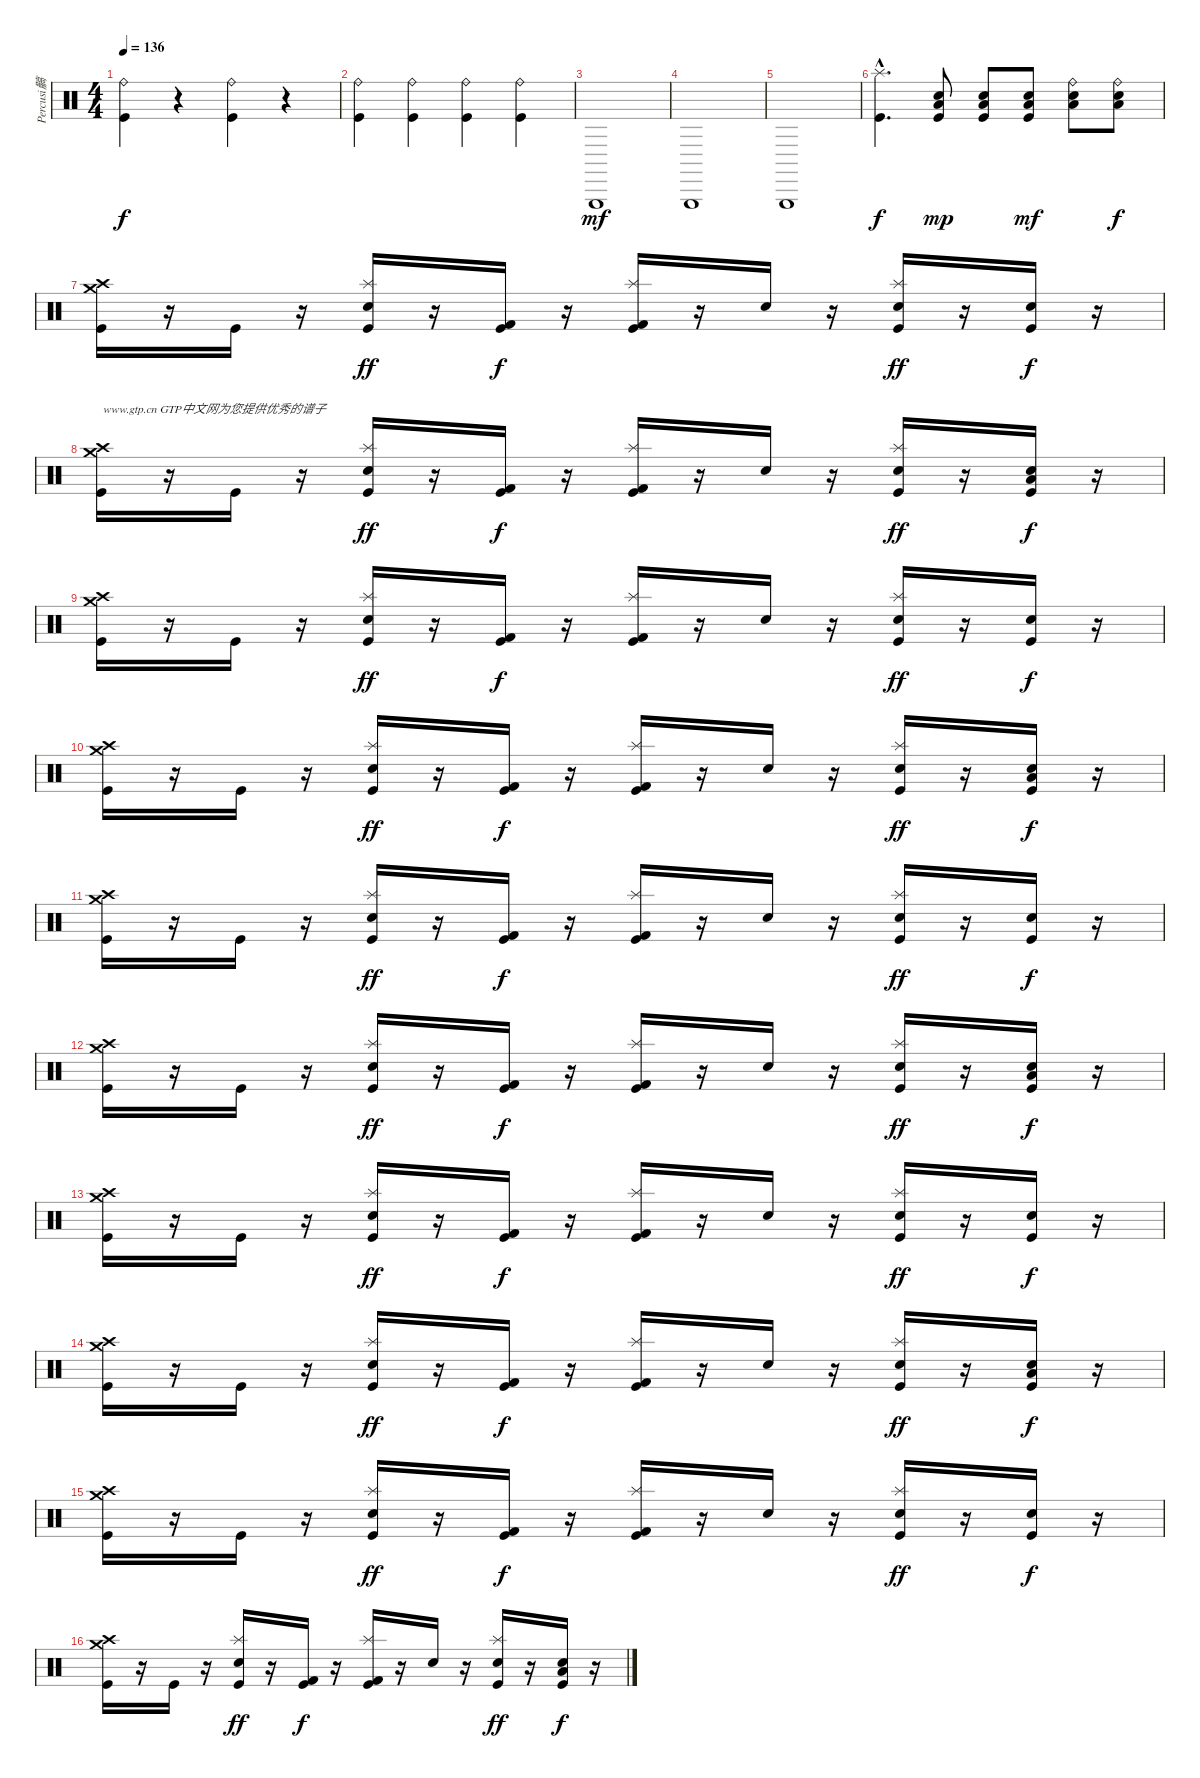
\track ("Percusi髇" "Percusi髇") {instrument percussion}
\staff {score}
\articulation defaults
\ts (4 4)
\tempo 136
\clef neutral
\ks c
("Kick (hit)" "Ride (bell)").4{dy f} r.4 ("Kick (hit)" "Ride (bell)").4 r.4 |
("Kick (hit)" "Ride (bell)").4 ("Kick (hit)" "Ride (bell)").4 ("Kick (hit)" "Ride (bell)").4 ("Kick (hit)" "Ride (bell)").4 |
"Triangle (hit)".1{dy mf} |
"Triangle (hit)".1 |
"Triangle (hit)".1 |
("Splash (hit)"{hac} "Kick (hit)"{hac}).4{d dy f} ("Low Floor Tom (hit)" "Electric Snare (hit)" "Kick (hit)").8{dy mp} ("Low Floor Tom (hit)" "Electric Snare (hit)" "Kick (hit)").8 ("Low Floor Tom (hit)" "Electric Snare (hit)" "Kick (hit)").8{dy mf} ("Low Floor Tom (hit)" "Electric Snare (hit)" "Ride (bell)").8 ("Low Floor Tom (hit)" "Electric Snare (hit)" "Ride (bell)").8{dy f} |
("Crash medium (hit)" "Crash high (hit)" "Kick (hit)").16 r.16 "Kick (hit)".16 r.16 ("Splash (hit)" "Electric Snare (hit)" "Kick (hit)").16{dy ff} r.16 ("Kick (hit) 2" "Kick (hit)").16{dy f} r.16 ("Splash (hit)" "Kick (hit) 2" "Kick (hit)").16 r.16 "Electric Snare (hit)".16 r.16 ("Splash (hit)" "Electric Snare (hit)" "Kick (hit)").16{dy ff} r.16 ("Electric Snare (hit)" "Kick (hit)").16{dy f} r.16 |
("Crash medium (hit)" "Crash high (hit)" "Kick (hit)").16{txt "www.gtp.cn GTP中文网为您提供优秀的谱子"} r.16 "Kick (hit)".16 r.16 ("Splash (hit)" "Electric Snare (hit)" "Kick (hit)").16{dy ff} r.16 ("Kick (hit) 2" "Kick (hit)").16{dy f} r.16 ("Splash (hit)" "Kick (hit) 2" "Kick (hit)").16 r.16 "Electric Snare (hit)".16 r.16 ("Splash (hit)" "Electric Snare (hit)" "Kick (hit)").16{dy ff} r.16 ("Low Tom (hit)" "Electric Snare (hit)" "Kick (hit)").16{dy f} r.16 |
("Crash medium (hit)" "Crash high (hit)" "Kick (hit)").16 r.16 "Kick (hit)".16 r.16 ("Splash (hit)" "Electric Snare (hit)" "Kick (hit)").16{dy ff} r.16 ("Kick (hit) 2" "Kick (hit)").16{dy f} r.16 ("Splash (hit)" "Kick (hit) 2" "Kick (hit)").16 r.16 "Electric Snare (hit)".16 r.16 ("Splash (hit)" "Electric Snare (hit)" "Kick (hit)").16{dy ff} r.16 ("Electric Snare (hit)" "Kick (hit)").16{dy f} r.16 |
("Crash medium (hit)" "Crash high (hit)" "Kick (hit)").16 r.16 "Kick (hit)".16 r.16 ("Splash (hit)" "Electric Snare (hit)" "Kick (hit)").16{dy ff} r.16 ("Kick (hit) 2" "Kick (hit)").16{dy f} r.16 ("Splash (hit)" "Kick (hit) 2" "Kick (hit)").16 r.16 "Electric Snare (hit)".16 r.16 ("Splash (hit)" "Electric Snare (hit)" "Kick (hit)").16{dy ff} r.16 ("Low Tom (hit)" "Electric Snare (hit)" "Kick (hit)").16{dy f} r.16 |
("Crash medium (hit)" "Crash high (hit)" "Kick (hit)").16 r.16 "Kick (hit)".16 r.16 ("Splash (hit)" "Electric Snare (hit)" "Kick (hit)").16{dy ff} r.16 ("Kick (hit) 2" "Kick (hit)").16{dy f} r.16 ("Splash (hit)" "Kick (hit) 2" "Kick (hit)").16 r.16 "Electric Snare (hit)".16 r.16 ("Splash (hit)" "Electric Snare (hit)" "Kick (hit)").16{dy ff} r.16 ("Electric Snare (hit)" "Kick (hit)").16{dy f} r.16 |
("Crash medium (hit)" "Crash high (hit)" "Kick (hit)").16 r.16 "Kick (hit)".16 r.16 ("Splash (hit)" "Electric Snare (hit)" "Kick (hit)").16{dy ff} r.16 ("Kick (hit) 2" "Kick (hit)").16{dy f} r.16 ("Splash (hit)" "Kick (hit) 2" "Kick (hit)").16 r.16 "Electric Snare (hit)".16 r.16 ("Splash (hit)" "Electric Snare (hit)" "Kick (hit)").16{dy ff} r.16 ("Low Tom (hit)" "Electric Snare (hit)" "Kick (hit)").16{dy f} r.16 |
("Crash medium (hit)" "Crash high (hit)" "Kick (hit)").16 r.16 "Kick (hit)".16 r.16 ("Splash (hit)" "Electric Snare (hit)" "Kick (hit)").16{dy ff} r.16 ("Kick (hit) 2" "Kick (hit)").16{dy f} r.16 ("Splash (hit)" "Kick (hit) 2" "Kick (hit)").16 r.16 "Electric Snare (hit)".16 r.16 ("Splash (hit)" "Electric Snare (hit)" "Kick (hit)").16{dy ff} r.16 ("Electric Snare (hit)" "Kick (hit)").16{dy f} r.16 |
("Crash medium (hit)" "Crash high (hit)" "Kick (hit)").16 r.16 "Kick (hit)".16 r.16 ("Splash (hit)" "Electric Snare (hit)" "Kick (hit)").16{dy ff} r.16 ("Kick (hit) 2" "Kick (hit)").16{dy f} r.16 ("Splash (hit)" "Kick (hit) 2" "Kick (hit)").16 r.16 "Electric Snare (hit)".16 r.16 ("Splash (hit)" "Electric Snare (hit)" "Kick (hit)").16{dy ff} r.16 ("Low Tom (hit)" "Electric Snare (hit)" "Kick (hit)").16{dy f} r.16 |
("Crash medium (hit)" "Crash high (hit)" "Kick (hit)").16 r.16 "Kick (hit)".16 r.16 ("Splash (hit)" "Electric Snare (hit)" "Kick (hit)").16{dy ff} r.16 ("Kick (hit) 2" "Kick (hit)").16{dy f} r.16 ("Splash (hit)" "Kick (hit) 2" "Kick (hit)").16 r.16 "Electric Snare (hit)".16 r.16 ("Splash (hit)" "Electric Snare (hit)" "Kick (hit)").16{dy ff} r.16 ("Electric Snare (hit)" "Kick (hit)").16{dy f} r.16 |
("Crash medium (hit)" "Crash high (hit)" "Kick (hit)").16 r.16 "Kick (hit)".16 r.16 ("Splash (hit)" "Electric Snare (hit)" "Kick (hit)").16{dy ff} r.16 ("Kick (hit) 2" "Kick (hit)").16{dy f} r.16 ("Splash (hit)" "Kick (hit) 2" "Kick (hit)").16 r.16 "Electric Snare (hit)".16 r.16 ("Splash (hit)" "Electric Snare (hit)" "Kick (hit)").16{dy ff} r.16 ("Low Tom (hit)" "Electric Snare (hit)" "Kick (hit)").16{dy f} r.16
